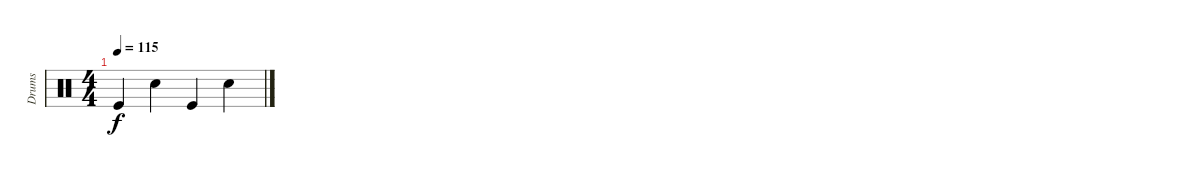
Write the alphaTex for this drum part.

\track ("Drums" "Drums") {instrument percussion}
\staff {score}
\articulation defaults
\ts (4 4)
\tempo 115
\clef neutral
\ks c "Kick (hit)".4{dy f} "Hand Clap (hit)".4 "Kick (hit)".4 "Hand Clap (hit)".4
